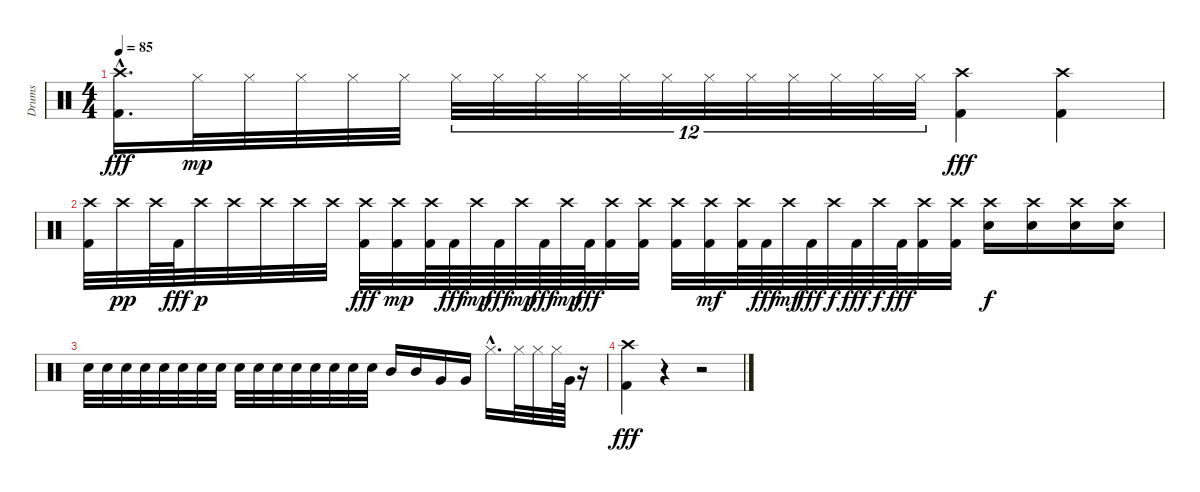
\track ("Drums" "Drums") {instrument percussion}
\staff {score}
\articulation defaults
\ts (4 4)
\tempo 85
\clef neutral
\ks c
("Crash high (hit)"{hac} "Kick (hit) 2"{hac}).16{d dy fff} "Hi-Hat (closed)".32{dy mp} "Hi-Hat (closed)".32 "Hi-Hat (closed)".32 "Hi-Hat (closed)".32 "Hi-Hat (closed)".32 "Hi-Hat (closed)".32{tu (12 8)} "Hi-Hat (closed)".32{tu (12 8)} "Hi-Hat (closed)".32{tu (12 8)} "Hi-Hat (closed)".32{tu (12 8)} "Hi-Hat (closed)".32{tu (12 8)} "Hi-Hat (closed)".32{tu (12 8)} "Hi-Hat (closed)".32{tu (12 8)} "Hi-Hat (closed)".32{tu (12 8)} "Hi-Hat (closed)".32{tu (12 8)} "Hi-Hat (closed)".32{tu (12 8)} "Hi-Hat (closed)".32{tu (12 8)} "Hi-Hat (closed)".32{tu (12 8)} ("Crash high (hit)" "Kick (hit) 2").4{dy fff} ("Crash high (hit)" "Kick (hit) 2").4 |
("Crash high (hit)" "Kick (hit) 2").32 "Crash high (hit)".32{dy pp} "Crash high (hit)".64 "Kick (hit) 2".64{dy fff} "Crash high (hit)".32{dy p} "Crash high (hit)".32 "Crash high (hit)".32 "Crash high (hit)".32 "Crash high (hit)".32 ("Crash high (hit)" "Kick (hit) 2").32{dy fff} ("Kick (hit) 2" "Crash high (hit)").32{dy mp} ("Kick (hit) 2" "Crash high (hit)").64 "Kick (hit) 2".64{dy fff} "Crash high (hit)".64{dy mp} "Kick (hit) 2".64{dy fff} "Crash high (hit)".64{dy mp} "Kick (hit) 2".64{dy fff} "Crash high (hit)".64{dy mp} "Kick (hit) 2".64{dy fff} ("Crash high (hit)" "Kick (hit) 2").32 ("Crash high (hit)" "Kick (hit) 2").32 ("Crash high (hit)" "Kick (hit) 2").32 ("Kick (hit) 2" "Crash high (hit)").32{dy mf} ("Kick (hit) 2" "Crash high (hit)").64 "Kick (hit) 2".64{dy fff} "Crash high (hit)".64{dy mf} "Kick (hit) 2".64{dy fff} "Crash high (hit)".64{dy f} "Kick (hit) 2".64{dy fff} "Crash high (hit)".64{dy f} "Kick (hit) 2".64{dy fff} ("Crash high (hit)" "Kick (hit) 2").32 ("Crash high (hit)" "Kick (hit) 2").32 ("Crash high (hit)" "Snare (hit) 2").16{dy f} ("Crash high (hit)" "Snare (hit) 2").16 ("Crash high (hit)" "Snare (hit) 2").16 ("Crash high (hit)" "Snare (hit) 2").16 |
"Snare (hit) 2".32 "Snare (hit) 2".32 "Snare (hit) 2".32 "Snare (hit) 2".32 "Snare (hit) 2".32 "Snare (hit) 2".32 "Snare (hit) 2".32 "Snare (hit) 2".32 "Snare (hit) 2".32 "Snare (hit) 2".32 "Snare (hit) 2".32 "Snare (hit) 2".32 "Snare (hit) 2".32 "Snare (hit) 2".32 "Snare (hit) 2".32 "Snare (hit) 2".32 "Mid Tom (hit)".16 "Mid Tom (hit)".16 "Very Low Tom (hit)".16 "Very Low Tom (hit)".16 "Hi-Hat (closed)"{hac}.16{d} "Hi-Hat (closed)".32 "Hi-Hat (closed)".32 "Hi-Hat (closed)".64 "Very Low Tom (hit)".64 r.16 |
("Crash high (hit)" "Kick (hit) 2").4{dy fff} r.4 r.2
